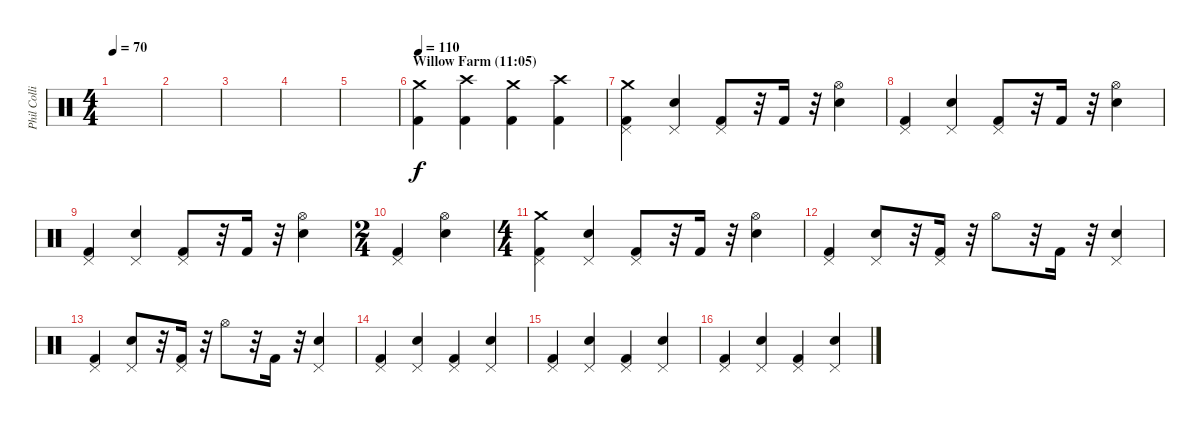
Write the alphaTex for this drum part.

\track ("Phil Collins (drums)" "Phil Colli") {instrument percussion}
\staff {score}
\articulation defaults
\ts (4 4)
\tempo 70
\clef neutral
\ks c
|
|
|
|
|
\section ("" "Willow Farm (11:05)")
\tempo 110
("Crash medium (hit)" "Kick (hit) 2").4{dy f} ("Crash high (hit)" "Kick (hit) 2").4 ("Crash medium (hit)" "Kick (hit) 2").4 ("Crash high (hit)" "Kick (hit) 2").4 |
("Crash medium (hit)" "Pedal Hi-Hat (hit)" "Kick (hit) 2").4 ("Pedal Hi-Hat (hit)" "Electric Snare (hit)").4 ("Pedal Hi-Hat (hit)" "Kick (hit) 2").8 r.32 "Kick (hit) 2".16 r.32 ("Hi-Hat (open)" "Electric Snare (hit)").4 |
("Pedal Hi-Hat (hit)" "Kick (hit) 2").4 ("Pedal Hi-Hat (hit)" "Electric Snare (hit)").4 ("Pedal Hi-Hat (hit)" "Kick (hit) 2").8 r.32 "Kick (hit) 2".16 r.32 ("Hi-Hat (open)" "Electric Snare (hit)").4 |
("Pedal Hi-Hat (hit)" "Kick (hit) 2").4 ("Pedal Hi-Hat (hit)" "Electric Snare (hit)").4 ("Pedal Hi-Hat (hit)" "Kick (hit) 2").8 r.32 "Kick (hit) 2".16 r.32 ("Hi-Hat (open)" "Electric Snare (hit)").4 |
\ts (2 4)
("Pedal Hi-Hat (hit)" "Kick (hit) 2").4 ("Hi-Hat (open)" "Electric Snare (hit)").4 |
\ts (4 4)
("Crash medium (hit)" "Pedal Hi-Hat (hit)" "Kick (hit) 2").4 ("Pedal Hi-Hat (hit)" "Electric Snare (hit)").4 ("Pedal Hi-Hat (hit)" "Kick (hit) 2").8 r.32 "Kick (hit) 2".16 r.32 ("Hi-Hat (open)" "Electric Snare (hit)").4 |
("Pedal Hi-Hat (hit)" "Kick (hit) 2").4 ("Pedal Hi-Hat (hit)" "Electric Snare (hit)").8 r.32 ("Pedal Hi-Hat (hit)" "Kick (hit) 2").16 r.32 "Hi-Hat (open)".8 r.32 "Kick (hit) 2".16 r.32 ("Pedal Hi-Hat (hit)" "Electric Snare (hit)").4 |
("Pedal Hi-Hat (hit)" "Kick (hit) 2").4 ("Pedal Hi-Hat (hit)" "Electric Snare (hit)").8 r.32 ("Pedal Hi-Hat (hit)" "Kick (hit) 2").16 r.32 "Hi-Hat (open)".8 r.32 "Kick (hit) 2".16 r.32 ("Pedal Hi-Hat (hit)" "Electric Snare (hit)").4 |
("Pedal Hi-Hat (hit)" "Kick (hit) 2").4 ("Pedal Hi-Hat (hit)" "Electric Snare (hit)").4 ("Pedal Hi-Hat (hit)" "Kick (hit) 2").4 ("Pedal Hi-Hat (hit)" "Electric Snare (hit)").4 |
("Pedal Hi-Hat (hit)" "Kick (hit) 2").4 ("Pedal Hi-Hat (hit)" "Electric Snare (hit)").4 ("Pedal Hi-Hat (hit)" "Kick (hit) 2").4 ("Pedal Hi-Hat (hit)" "Electric Snare (hit)").4 |
("Pedal Hi-Hat (hit)" "Kick (hit) 2").4 ("Pedal Hi-Hat (hit)" "Electric Snare (hit)").4 ("Pedal Hi-Hat (hit)" "Kick (hit) 2").4 ("Pedal Hi-Hat (hit)" "Electric Snare (hit)").4
